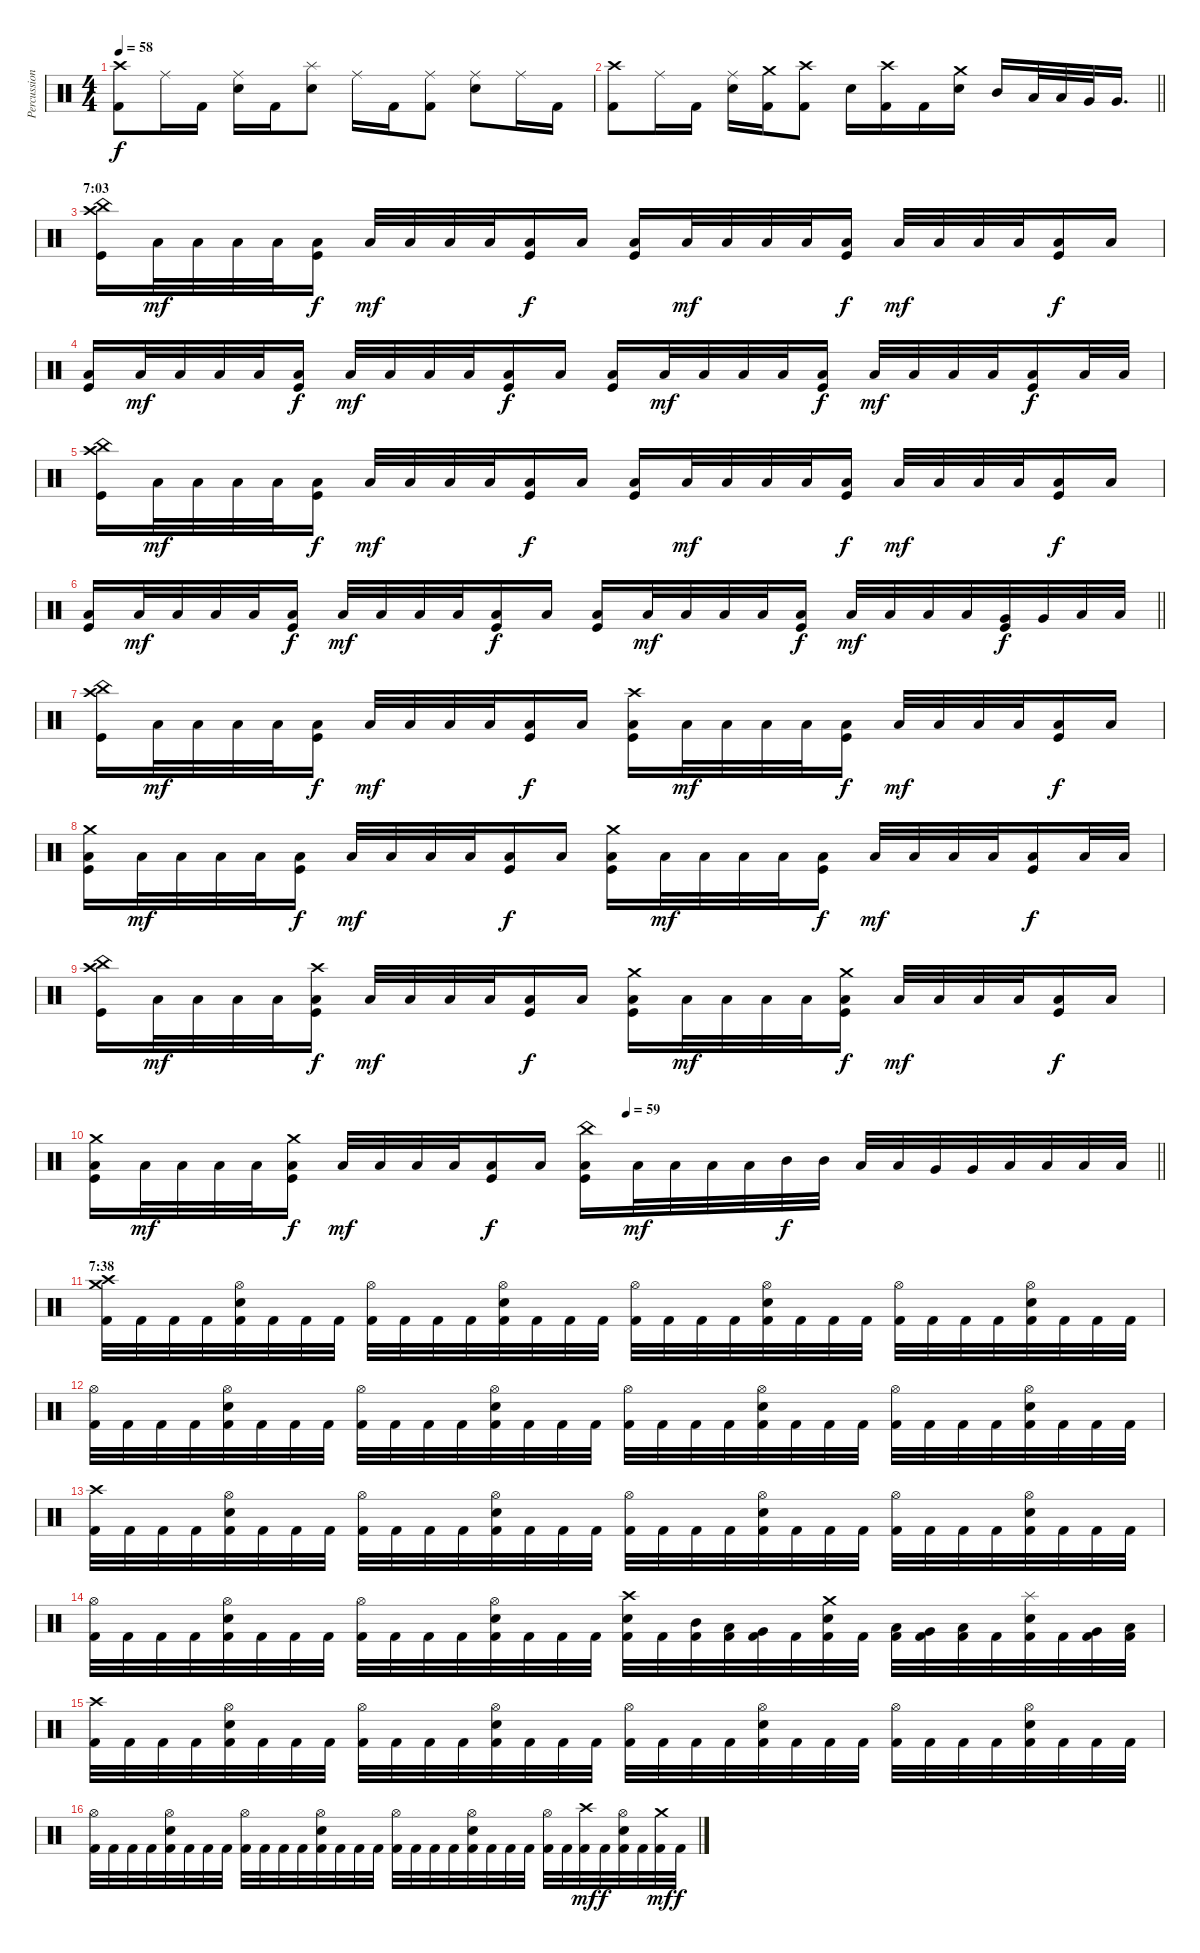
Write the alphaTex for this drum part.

\track ("Percussions" "Percussion") {instrument percussion}
\staff {score}
\articulation defaults
\ts (4 4)
\tempo 58
\clef neutral
\ks c
("Crash high (hit)" "Kick (hit) 2").8{dy f} "Ride (middle)".16 "Kick (hit) 2".16 ("Ride (middle)" "Snare (hit) 2").16 "Kick (hit) 2".16 ("Splash (hit)" "Snare (hit) 2").8 "Ride (middle)".16 "Kick (hit) 2".16 ("Ride (middle)" "Kick (hit) 2").8 ("Ride (middle)" "Snare (hit) 2").8 "Ride (middle)".16 "Kick (hit) 2".16 |
\barLineRight lightlight
("Crash high (hit)" "Kick (hit) 2").8 "Ride (middle)".16 "Kick (hit) 2".16 ("Ride (middle)" "Snare (hit) 2").16 ("Crash medium (hit)" "Kick (hit) 2").16 ("Crash high (hit)" "Kick (hit) 2").8 "Snare (hit) 2".16 ("Crash high (hit)" "Kick (hit) 2").16 "Kick (hit) 2".16 ("Crash medium (hit)" "Snare (hit) 2").16 "Mid Tom (hit)".16 "Low Tom (hit)".32 "Low Tom (hit)".32 "Very Low Tom (hit)".32 "Very Low Tom (hit)".16{d} |
\section ("" "7:03")
("Crash high (hit)" "China (hit)" "Kick (hit)").16 "Low Floor Tom (hit)".32{dy mf} "Low Floor Tom (hit)".32 "Low Floor Tom (hit)".32 "Low Floor Tom (hit)".32 ("Low Floor Tom (hit)" "Kick (hit)").16{dy f} "Low Floor Tom (hit)".32{dy mf} "Low Floor Tom (hit)".32 "Low Floor Tom (hit)".32 "Low Floor Tom (hit)".32 ("Low Floor Tom (hit)" "Kick (hit)").16{dy f} "Low Floor Tom (hit)".16 ("Low Floor Tom (hit)" "Kick (hit)").16 "Low Floor Tom (hit)".32{dy mf} "Low Floor Tom (hit)".32 "Low Floor Tom (hit)".32 "Low Floor Tom (hit)".32 ("Low Floor Tom (hit)" "Kick (hit)").16{dy f} "Low Floor Tom (hit)".32{dy mf} "Low Floor Tom (hit)".32 "Low Floor Tom (hit)".32 "Low Floor Tom (hit)".32 ("Low Floor Tom (hit)" "Kick (hit)").16{dy f} "Low Floor Tom (hit)".16 |
("Low Floor Tom (hit)" "Kick (hit)").16 "Low Floor Tom (hit)".32{dy mf} "Low Floor Tom (hit)".32 "Low Floor Tom (hit)".32 "Low Floor Tom (hit)".32 ("Low Floor Tom (hit)" "Kick (hit)").16{dy f} "Low Floor Tom (hit)".32{dy mf} "Low Floor Tom (hit)".32 "Low Floor Tom (hit)".32 "Low Floor Tom (hit)".32 ("Low Floor Tom (hit)" "Kick (hit)").16{dy f} "Low Floor Tom (hit)".16 ("Low Floor Tom (hit)" "Kick (hit)").16 "Low Floor Tom (hit)".32{dy mf} "Low Floor Tom (hit)".32 "Low Floor Tom (hit)".32 "Low Floor Tom (hit)".32 ("Low Floor Tom (hit)" "Kick (hit)").16{dy f} "Low Floor Tom (hit)".32{dy mf} "Low Floor Tom (hit)".32 "Low Floor Tom (hit)".32 "Low Floor Tom (hit)".32 ("Low Floor Tom (hit)" "Kick (hit)").16{dy f} "Low Floor Tom (hit)".32 "Low Floor Tom (hit)".32 |
("Crash high (hit)" "China (hit)" "Kick (hit)").16 "Low Floor Tom (hit)".32{dy mf} "Low Floor Tom (hit)".32 "Low Floor Tom (hit)".32 "Low Floor Tom (hit)".32 ("Low Floor Tom (hit)" "Kick (hit)").16{dy f} "Low Floor Tom (hit)".32{dy mf} "Low Floor Tom (hit)".32 "Low Floor Tom (hit)".32 "Low Floor Tom (hit)".32 ("Low Floor Tom (hit)" "Kick (hit)").16{dy f} "Low Floor Tom (hit)".16 ("Low Floor Tom (hit)" "Kick (hit)").16 "Low Floor Tom (hit)".32{dy mf} "Low Floor Tom (hit)".32 "Low Floor Tom (hit)".32 "Low Floor Tom (hit)".32 ("Low Floor Tom (hit)" "Kick (hit)").16{dy f} "Low Floor Tom (hit)".32{dy mf} "Low Floor Tom (hit)".32 "Low Floor Tom (hit)".32 "Low Floor Tom (hit)".32 ("Low Floor Tom (hit)" "Kick (hit)").16{dy f} "Low Floor Tom (hit)".16 |
\barLineRight lightlight
("Low Floor Tom (hit)" "Kick (hit)").16 "Low Floor Tom (hit)".32{dy mf} "Low Floor Tom (hit)".32 "Low Floor Tom (hit)".32 "Low Floor Tom (hit)".32 ("Low Floor Tom (hit)" "Kick (hit)").16{dy f} "Low Floor Tom (hit)".32{dy mf} "Low Floor Tom (hit)".32 "Low Floor Tom (hit)".32 "Low Floor Tom (hit)".32 ("Low Floor Tom (hit)" "Kick (hit)").16{dy f} "Low Floor Tom (hit)".16 ("Low Floor Tom (hit)" "Kick (hit)").16 "Low Floor Tom (hit)".32{dy mf} "Low Floor Tom (hit)".32 "Low Floor Tom (hit)".32 "Low Floor Tom (hit)".32 ("Low Floor Tom (hit)" "Kick (hit)").16{dy f} "Low Floor Tom (hit)".32{dy mf} "Low Floor Tom (hit)".32 "Low Floor Tom (hit)".32 "Low Floor Tom (hit)".32 ("Very Low Tom (hit)" "Kick (hit)").32{dy f} "Very Low Tom (hit)".32 "Low Tom (hit)".32 "Low Tom (hit)".32 |
\section ("" "")
("Crash high (hit)" "China (hit)" "Kick (hit)").16 "Low Floor Tom (hit)".32{dy mf} "Low Floor Tom (hit)".32 "Low Floor Tom (hit)".32 "Low Floor Tom (hit)".32 ("Low Floor Tom (hit)" "Kick (hit)").16{dy f} "Low Floor Tom (hit)".32{dy mf} "Low Floor Tom (hit)".32 "Low Floor Tom (hit)".32 "Low Floor Tom (hit)".32 ("Low Floor Tom (hit)" "Kick (hit)").16{dy f} "Low Floor Tom (hit)".16 ("Crash high (hit)" "Low Floor Tom (hit)" "Kick (hit)").16 "Low Floor Tom (hit)".32{dy mf} "Low Floor Tom (hit)".32 "Low Floor Tom (hit)".32 "Low Floor Tom (hit)".32 ("Low Floor Tom (hit)" "Kick (hit)").16{dy f} "Low Floor Tom (hit)".32{dy mf} "Low Floor Tom (hit)".32 "Low Floor Tom (hit)".32 "Low Floor Tom (hit)".32 ("Low Floor Tom (hit)" "Kick (hit)").16{dy f} "Low Floor Tom (hit)".16 |
("Crash medium (hit)" "Low Floor Tom (hit)" "Kick (hit)").16 "Low Floor Tom (hit)".32{dy mf} "Low Floor Tom (hit)".32 "Low Floor Tom (hit)".32 "Low Floor Tom (hit)".32 ("Low Floor Tom (hit)" "Kick (hit)").16{dy f} "Low Floor Tom (hit)".32{dy mf} "Low Floor Tom (hit)".32 "Low Floor Tom (hit)".32 "Low Floor Tom (hit)".32 ("Low Floor Tom (hit)" "Kick (hit)").16{dy f} "Low Floor Tom (hit)".16 ("Crash medium (hit)" "Low Floor Tom (hit)" "Kick (hit)").16 "Low Floor Tom (hit)".32{dy mf} "Low Floor Tom (hit)".32 "Low Floor Tom (hit)".32 "Low Floor Tom (hit)".32 ("Low Floor Tom (hit)" "Kick (hit)").16{dy f} "Low Floor Tom (hit)".32{dy mf} "Low Floor Tom (hit)".32 "Low Floor Tom (hit)".32 "Low Floor Tom (hit)".32 ("Low Floor Tom (hit)" "Kick (hit)").16{dy f} "Low Floor Tom (hit)".32 "Low Floor Tom (hit)".32 |
("Crash high (hit)" "China (hit)" "Kick (hit)").16 "Low Floor Tom (hit)".32{dy mf} "Low Floor Tom (hit)".32 "Low Floor Tom (hit)".32 "Low Floor Tom (hit)".32 ("Crash high (hit)" "Low Floor Tom (hit)" "Kick (hit)").16{dy f} "Low Floor Tom (hit)".32{dy mf} "Low Floor Tom (hit)".32 "Low Floor Tom (hit)".32 "Low Floor Tom (hit)".32 ("Low Floor Tom (hit)" "Kick (hit)").16{dy f} "Low Floor Tom (hit)".16 ("Crash medium (hit)" "Low Floor Tom (hit)" "Kick (hit)").16 "Low Floor Tom (hit)".32{dy mf} "Low Floor Tom (hit)".32 "Low Floor Tom (hit)".32 "Low Floor Tom (hit)".32 ("Crash medium (hit)" "Low Floor Tom (hit)" "Kick (hit)").16{dy f} "Low Floor Tom (hit)".32{dy mf} "Low Floor Tom (hit)".32 "Low Floor Tom (hit)".32 "Low Floor Tom (hit)".32 ("Low Floor Tom (hit)" "Kick (hit)").16{dy f} "Low Floor Tom (hit)".16 |
\tempo (59 0.5)
\barLineRight lightlight
("Crash medium (hit)" "Low Floor Tom (hit)" "Kick (hit)").16 "Low Floor Tom (hit)".32{dy mf} "Low Floor Tom (hit)".32 "Low Floor Tom (hit)".32 "Low Floor Tom (hit)".32 ("Crash medium (hit)" "Low Floor Tom (hit)" "Kick (hit)").16{dy f} "Low Floor Tom (hit)".32{dy mf} "Low Floor Tom (hit)".32 "Low Floor Tom (hit)".32 "Low Floor Tom (hit)".32 ("Low Floor Tom (hit)" "Kick (hit)").16{dy f} "Low Floor Tom (hit)".16 ("China (hit)" "Low Floor Tom (hit)" "Kick (hit)").16 "Low Floor Tom (hit)".32{dy mf} "Low Floor Tom (hit)".32 "Low Floor Tom (hit)".32 "Low Floor Tom (hit)".32 "Mid Tom (hit)".32{dy f} "Mid Tom (hit)".32 "Low Tom (hit)".32 "Low Tom (hit)".32 "Very Low Tom (hit)".32 "Very Low Tom (hit)".32 "Low Floor Tom (hit)".32 "Low Floor Tom (hit)".32 "Low Floor Tom (hit)".32 "Low Floor Tom (hit)".32 |
\section ("" "7:38")
("Crash high (hit)" "Crash medium (hit)" "Kick (hit) 2").32 "Kick (hit) 2".32 "Kick (hit) 2".32 "Kick (hit) 2".32 ("Hi-Hat (open)" "Snare (hit) 2" "Kick (hit) 2").32 "Kick (hit) 2".32 "Kick (hit) 2".32 "Kick (hit) 2".32 ("Hi-Hat (open)" "Kick (hit) 2").32 "Kick (hit) 2".32 "Kick (hit) 2".32 "Kick (hit) 2".32 ("Hi-Hat (open)" "Snare (hit) 2" "Kick (hit) 2").32 "Kick (hit) 2".32 "Kick (hit) 2".32 "Kick (hit) 2".32 ("Hi-Hat (open)" "Kick (hit) 2").32 "Kick (hit) 2".32 "Kick (hit) 2".32 "Kick (hit) 2".32 ("Hi-Hat (open)" "Snare (hit) 2" "Kick (hit) 2").32 "Kick (hit) 2".32 "Kick (hit) 2".32 "Kick (hit) 2".32 ("Hi-Hat (open)" "Kick (hit) 2").32 "Kick (hit) 2".32 "Kick (hit) 2".32 "Kick (hit) 2".32 ("Hi-Hat (open)" "Snare (hit) 2" "Kick (hit) 2").32 "Kick (hit) 2".32 "Kick (hit) 2".32 "Kick (hit) 2".32 |
("Hi-Hat (open)" "Kick (hit) 2").32 "Kick (hit) 2".32 "Kick (hit) 2".32 "Kick (hit) 2".32 ("Hi-Hat (open)" "Snare (hit) 2" "Kick (hit) 2").32 "Kick (hit) 2".32 "Kick (hit) 2".32 "Kick (hit) 2".32 ("Hi-Hat (open)" "Kick (hit) 2").32 "Kick (hit) 2".32 "Kick (hit) 2".32 "Kick (hit) 2".32 ("Hi-Hat (open)" "Snare (hit) 2" "Kick (hit) 2").32 "Kick (hit) 2".32 "Kick (hit) 2".32 "Kick (hit) 2".32 ("Hi-Hat (open)" "Kick (hit) 2").32 "Kick (hit) 2".32 "Kick (hit) 2".32 "Kick (hit) 2".32 ("Hi-Hat (open)" "Snare (hit) 2" "Kick (hit) 2").32 "Kick (hit) 2".32 "Kick (hit) 2".32 "Kick (hit) 2".32 ("Hi-Hat (open)" "Kick (hit) 2").32 "Kick (hit) 2".32 "Kick (hit) 2".32 "Kick (hit) 2".32 ("Hi-Hat (open)" "Snare (hit) 2" "Kick (hit) 2").32 "Kick (hit) 2".32 "Kick (hit) 2".32 "Kick (hit) 2".32 |
("Crash high (hit)" "Kick (hit) 2").32 "Kick (hit) 2".32 "Kick (hit) 2".32 "Kick (hit) 2".32 ("Hi-Hat (open)" "Snare (hit) 2" "Kick (hit) 2").32 "Kick (hit) 2".32 "Kick (hit) 2".32 "Kick (hit) 2".32 ("Hi-Hat (open)" "Kick (hit) 2").32 "Kick (hit) 2".32 "Kick (hit) 2".32 "Kick (hit) 2".32 ("Hi-Hat (open)" "Snare (hit) 2" "Kick (hit) 2").32 "Kick (hit) 2".32 "Kick (hit) 2".32 "Kick (hit) 2".32 ("Hi-Hat (open)" "Kick (hit) 2").32 "Kick (hit) 2".32 "Kick (hit) 2".32 "Kick (hit) 2".32 ("Hi-Hat (open)" "Snare (hit) 2" "Kick (hit) 2").32 "Kick (hit) 2".32 "Kick (hit) 2".32 "Kick (hit) 2".32 ("Hi-Hat (open)" "Kick (hit) 2").32 "Kick (hit) 2".32 "Kick (hit) 2".32 "Kick (hit) 2".32 ("Hi-Hat (open)" "Snare (hit) 2" "Kick (hit) 2").32 "Kick (hit) 2".32 "Kick (hit) 2".32 "Kick (hit) 2".32 |
("Hi-Hat (open)" "Kick (hit) 2").32 "Kick (hit) 2".32 "Kick (hit) 2".32 "Kick (hit) 2".32 ("Hi-Hat (open)" "Snare (hit) 2" "Kick (hit) 2").32 "Kick (hit) 2".32 "Kick (hit) 2".32 "Kick (hit) 2".32 ("Hi-Hat (open)" "Kick (hit) 2").32 "Kick (hit) 2".32 "Kick (hit) 2".32 "Kick (hit) 2".32 ("Hi-Hat (open)" "Snare (hit) 2" "Kick (hit) 2").32 "Kick (hit) 2".32 "Kick (hit) 2".32 "Kick (hit) 2".32 ("Crash high (hit)" "Snare (hit) 2" "Kick (hit) 2").32 "Kick (hit) 2".32 ("Mid Tom (hit)" "Kick (hit) 2").32 ("Low Tom (hit)" "Kick (hit) 2").32 ("Very Low Tom (hit)" "Kick (hit) 2").32 "Kick (hit) 2".32 ("Crash medium (hit)" "Snare (hit) 2" "Kick (hit) 2").32 "Kick (hit) 2".32 ("Low Tom (hit)" "Kick (hit) 2").32 ("Very Low Tom (hit)" "Kick (hit) 2").32 ("Low Floor Tom (hit)" "Kick (hit) 2").32 "Kick (hit) 2".32 ("Splash (hit)" "Snare (hit) 2" "Kick (hit) 2").32 "Kick (hit) 2".32 ("Very Low Tom (hit)" "Kick (hit) 2").32 ("Low Floor Tom (hit)" "Kick (hit) 2").32 |
("Crash high (hit)" "Kick (hit) 2").32 "Kick (hit) 2".32 "Kick (hit) 2".32 "Kick (hit) 2".32 ("Hi-Hat (open)" "Snare (hit) 2" "Kick (hit) 2").32 "Kick (hit) 2".32 "Kick (hit) 2".32 "Kick (hit) 2".32 ("Hi-Hat (open)" "Kick (hit) 2").32 "Kick (hit) 2".32 "Kick (hit) 2".32 "Kick (hit) 2".32 ("Hi-Hat (open)" "Snare (hit) 2" "Kick (hit) 2").32 "Kick (hit) 2".32 "Kick (hit) 2".32 "Kick (hit) 2".32 ("Hi-Hat (open)" "Kick (hit) 2").32 "Kick (hit) 2".32 "Kick (hit) 2".32 "Kick (hit) 2".32 ("Hi-Hat (open)" "Snare (hit) 2" "Kick (hit) 2").32 "Kick (hit) 2".32 "Kick (hit) 2".32 "Kick (hit) 2".32 ("Hi-Hat (open)" "Kick (hit) 2").32 "Kick (hit) 2".32 "Kick (hit) 2".32 "Kick (hit) 2".32 ("Hi-Hat (open)" "Snare (hit) 2" "Kick (hit) 2").32 "Kick (hit) 2".32 "Kick (hit) 2".32 "Kick (hit) 2".32 |
("Hi-Hat (open)" "Kick (hit) 2").32 "Kick (hit) 2".32 "Kick (hit) 2".32 "Kick (hit) 2".32 ("Hi-Hat (open)" "Snare (hit) 2" "Kick (hit) 2").32 "Kick (hit) 2".32 "Kick (hit) 2".32 "Kick (hit) 2".32 ("Hi-Hat (open)" "Kick (hit) 2").32 "Kick (hit) 2".32 "Kick (hit) 2".32 "Kick (hit) 2".32 ("Hi-Hat (open)" "Snare (hit) 2" "Kick (hit) 2").32 "Kick (hit) 2".32 "Kick (hit) 2".32 "Kick (hit) 2".32 ("Hi-Hat (open)" "Kick (hit) 2").32 "Kick (hit) 2".32 "Kick (hit) 2".32 "Kick (hit) 2".32 ("Hi-Hat (open)" "Snare (hit) 2" "Kick (hit) 2").32 "Kick (hit) 2".32 "Kick (hit) 2".32 "Kick (hit) 2".32 ("Hi-Hat (open)" "Kick (hit) 2").32 "Kick (hit) 2".32 ("Crash high (hit)" "Kick (hit) 2").32{dy mf} "Kick (hit) 2".32{dy f} ("Hi-Hat (open)" "Snare (hit) 2" "Kick (hit) 2").32 "Kick (hit) 2".32 ("Crash medium (hit)" "Kick (hit) 2").32{dy mf} "Kick (hit) 2".32{dy f}
